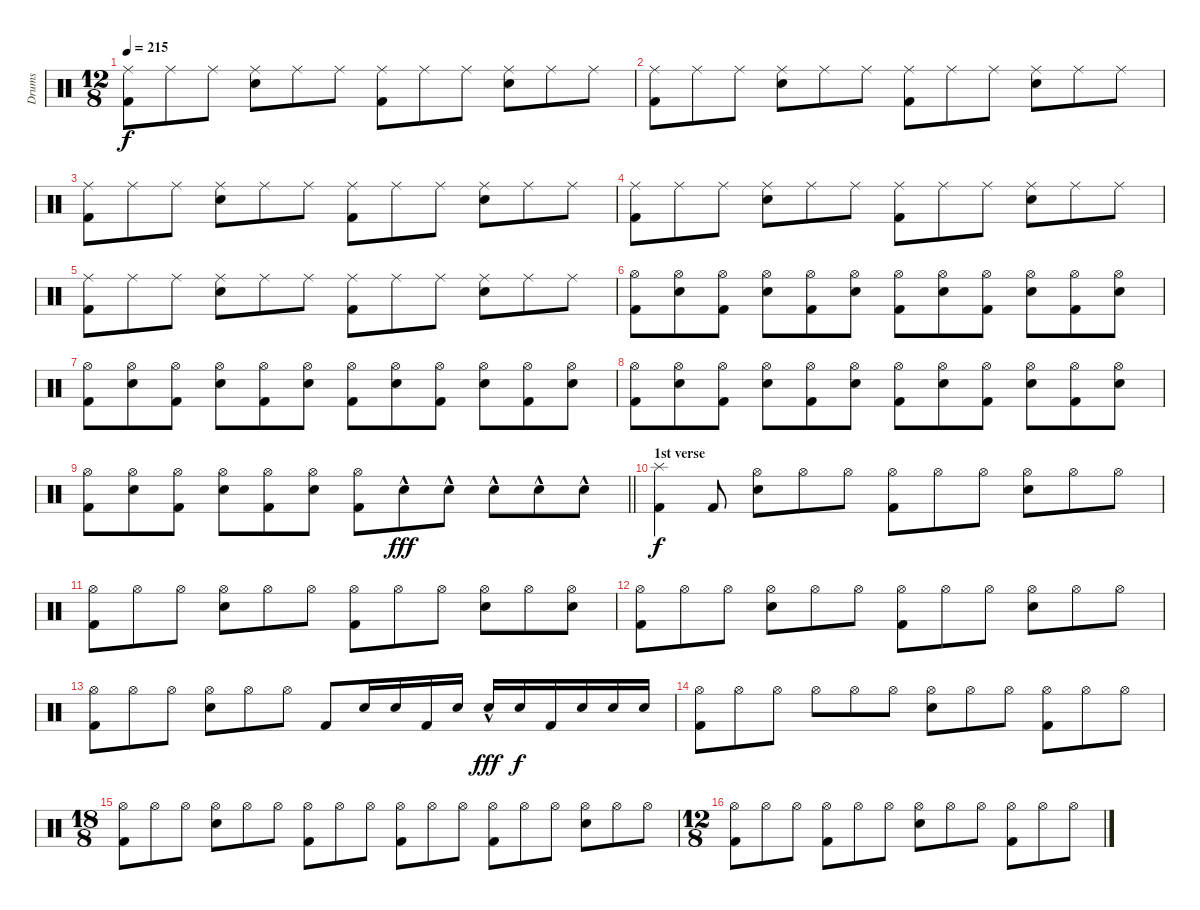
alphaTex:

\track ("Drums" "Drums") {instrument percussion bank 127}
\staff {score}
\articulation defaults
\ts (12 8)
\tempo 215
\clef neutral
\ks c
("Ride (middle)" "Kick (hit) 2").8{dy f} "Ride (middle)".8 "Ride (middle)".8 ("Ride (middle)" "Electric Snare (hit)").8 "Ride (middle)".8 "Ride (middle)".8 ("Ride (middle)" "Kick (hit) 2").8 "Ride (middle)".8 "Ride (middle)".8 ("Ride (middle)" "Electric Snare (hit)").8 "Ride (middle)".8 "Ride (middle)".8 |
("Ride (middle)" "Kick (hit) 2").8 "Ride (middle)".8 "Ride (middle)".8 ("Ride (middle)" "Electric Snare (hit)").8 "Ride (middle)".8 "Ride (middle)".8 ("Ride (middle)" "Kick (hit) 2").8 "Ride (middle)".8 "Ride (middle)".8 ("Ride (middle)" "Electric Snare (hit)").8 "Ride (middle)".8 "Ride (middle)".8 |
("Ride (middle)" "Kick (hit) 2").8 "Ride (middle)".8 "Ride (middle)".8 ("Ride (middle)" "Electric Snare (hit)").8 "Ride (middle)".8 "Ride (middle)".8 ("Ride (middle)" "Kick (hit) 2").8 "Ride (middle)".8 "Ride (middle)".8 ("Ride (middle)" "Electric Snare (hit)").8 "Ride (middle)".8 "Ride (middle)".8 |
("Ride (middle)" "Kick (hit) 2").8 "Ride (middle)".8 "Ride (middle)".8 ("Ride (middle)" "Electric Snare (hit)").8 "Ride (middle)".8 "Ride (middle)".8 ("Ride (middle)" "Kick (hit) 2").8 "Ride (middle)".8 "Ride (middle)".8 ("Ride (middle)" "Electric Snare (hit)").8 "Ride (middle)".8 "Ride (middle)".8 |
("Ride (middle)" "Kick (hit) 2").8 "Ride (middle)".8 "Ride (middle)".8 ("Ride (middle)" "Electric Snare (hit)").8 "Ride (middle)".8 "Ride (middle)".8 ("Ride (middle)" "Kick (hit) 2").8 "Ride (middle)".8 "Ride (middle)".8 ("Ride (middle)" "Electric Snare (hit)").8 "Ride (middle)".8 "Ride (middle)".8 |
("Hi-Hat (open)" "Kick (hit) 2").8 ("Hi-Hat (open)" "Electric Snare (hit)").8 ("Hi-Hat (open)" "Kick (hit) 2").8 ("Hi-Hat (open)" "Electric Snare (hit)").8 ("Hi-Hat (open)" "Kick (hit) 2").8 ("Hi-Hat (open)" "Electric Snare (hit)").8 ("Hi-Hat (open)" "Kick (hit) 2").8 ("Hi-Hat (open)" "Electric Snare (hit)").8 ("Hi-Hat (open)" "Kick (hit) 2").8 ("Hi-Hat (open)" "Electric Snare (hit)").8 ("Hi-Hat (open)" "Kick (hit) 2").8 ("Hi-Hat (open)" "Electric Snare (hit)").8 |
("Hi-Hat (open)" "Kick (hit) 2").8 ("Hi-Hat (open)" "Electric Snare (hit)").8 ("Hi-Hat (open)" "Kick (hit) 2").8 ("Hi-Hat (open)" "Electric Snare (hit)").8 ("Hi-Hat (open)" "Kick (hit) 2").8 ("Hi-Hat (open)" "Electric Snare (hit)").8 ("Hi-Hat (open)" "Kick (hit) 2").8 ("Hi-Hat (open)" "Electric Snare (hit)").8 ("Hi-Hat (open)" "Kick (hit) 2").8 ("Hi-Hat (open)" "Electric Snare (hit)").8 ("Hi-Hat (open)" "Kick (hit) 2").8 ("Hi-Hat (open)" "Electric Snare (hit)").8 |
("Hi-Hat (open)" "Kick (hit) 2").8 ("Hi-Hat (open)" "Electric Snare (hit)").8 ("Hi-Hat (open)" "Kick (hit) 2").8 ("Hi-Hat (open)" "Electric Snare (hit)").8 ("Hi-Hat (open)" "Kick (hit) 2").8 ("Hi-Hat (open)" "Electric Snare (hit)").8 ("Hi-Hat (open)" "Kick (hit) 2").8 ("Hi-Hat (open)" "Electric Snare (hit)").8 ("Hi-Hat (open)" "Kick (hit) 2").8 ("Hi-Hat (open)" "Electric Snare (hit)").8 ("Hi-Hat (open)" "Kick (hit) 2").8 ("Hi-Hat (open)" "Electric Snare (hit)").8 |
\barLineRight lightlight
("Hi-Hat (open)" "Kick (hit) 2").8 ("Hi-Hat (open)" "Electric Snare (hit)").8 ("Hi-Hat (open)" "Kick (hit) 2").8 ("Hi-Hat (open)" "Electric Snare (hit)").8 ("Hi-Hat (open)" "Kick (hit) 2").8 ("Hi-Hat (open)" "Electric Snare (hit)").8 ("Hi-Hat (open)" "Kick (hit) 2").8 "Electric Snare (hit)"{hac}.8{dy fff} "Electric Snare (hit)"{hac}.8 "Electric Snare (hit)"{hac}.8 "Electric Snare (hit)"{hac}.8 "Electric Snare (hit)"{hac}.8 |
\section ("" "1st verse")
("Splash (hit)" "Kick (hit) 2").4{dy f} "Kick (hit) 2".8 ("Hi-Hat (open)" "Electric Snare (hit)").8 "Hi-Hat (open)".8 "Hi-Hat (open)".8 ("Hi-Hat (open)" "Kick (hit) 2").8 "Hi-Hat (open)".8 "Hi-Hat (open)".8 ("Hi-Hat (open)" "Electric Snare (hit)").8 "Hi-Hat (open)".8 "Hi-Hat (open)".8 |
("Hi-Hat (open)" "Kick (hit) 2").8 "Hi-Hat (open)".8 "Hi-Hat (open)".8 ("Hi-Hat (open)" "Electric Snare (hit)").8 "Hi-Hat (open)".8 "Hi-Hat (open)".8 ("Hi-Hat (open)" "Kick (hit) 2").8 "Hi-Hat (open)".8 "Hi-Hat (open)".8 ("Hi-Hat (open)" "Electric Snare (hit)").8 "Hi-Hat (open)".8 ("Hi-Hat (open)" "Electric Snare (hit)").8 |
("Hi-Hat (open)" "Kick (hit) 2").8 "Hi-Hat (open)".8 "Hi-Hat (open)".8 ("Hi-Hat (open)" "Electric Snare (hit)").8 "Hi-Hat (open)".8 "Hi-Hat (open)".8 ("Hi-Hat (open)" "Kick (hit) 2").8 "Hi-Hat (open)".8 "Hi-Hat (open)".8 ("Hi-Hat (open)" "Electric Snare (hit)").8 "Hi-Hat (open)".8 "Hi-Hat (open)".8 |
("Hi-Hat (open)" "Kick (hit) 2").8 "Hi-Hat (open)".8 "Hi-Hat (open)".8 ("Hi-Hat (open)" "Electric Snare (hit)").8 "Hi-Hat (open)".8 "Hi-Hat (open)".8 "Kick (hit) 2".8 "Electric Snare (hit)".16 "Electric Snare (hit)".16 "Kick (hit) 2".16 "Electric Snare (hit)".16 "Electric Snare (hit)"{hac}.16{dy fff} "Electric Snare (hit)".16{dy f} "Kick (hit) 2".16 "Electric Snare (hit)".16 "Electric Snare (hit)".16 "Electric Snare (hit)".16 |
("Hi-Hat (open)" "Kick (hit) 2").8 "Hi-Hat (open)".8 "Hi-Hat (open)".8 "Hi-Hat (open)".8 "Hi-Hat (open)".8 "Hi-Hat (open)".8 ("Hi-Hat (open)" "Electric Snare (hit)").8 "Hi-Hat (open)".8 "Hi-Hat (open)".8 ("Hi-Hat (open)" "Kick (hit) 2").8 "Hi-Hat (open)".8 "Hi-Hat (open)".8 |
\ts (18 8)
("Hi-Hat (open)" "Kick (hit) 2").8 "Hi-Hat (open)".8 "Hi-Hat (open)".8 ("Hi-Hat (open)" "Electric Snare (hit)").8 "Hi-Hat (open)".8 "Hi-Hat (open)".8 ("Hi-Hat (open)" "Kick (hit) 2").8 "Hi-Hat (open)".8 "Hi-Hat (open)".8 ("Hi-Hat (open)" "Kick (hit) 2").8 "Hi-Hat (open)".8 "Hi-Hat (open)".8 ("Hi-Hat (open)" "Kick (hit) 2").8 "Hi-Hat (open)".8 "Hi-Hat (open)".8 ("Hi-Hat (open)" "Electric Snare (hit)").8 "Hi-Hat (open)".8 "Hi-Hat (open)".8 |
\ts (12 8)
("Hi-Hat (open)" "Kick (hit) 2").8 "Hi-Hat (open)".8 "Hi-Hat (open)".8 ("Hi-Hat (open)" "Kick (hit) 2").8 "Hi-Hat (open)".8 "Hi-Hat (open)".8 ("Hi-Hat (open)" "Electric Snare (hit)").8 "Hi-Hat (open)".8 "Hi-Hat (open)".8 ("Hi-Hat (open)" "Kick (hit) 2").8 "Hi-Hat (open)".8 "Hi-Hat (open)".8
